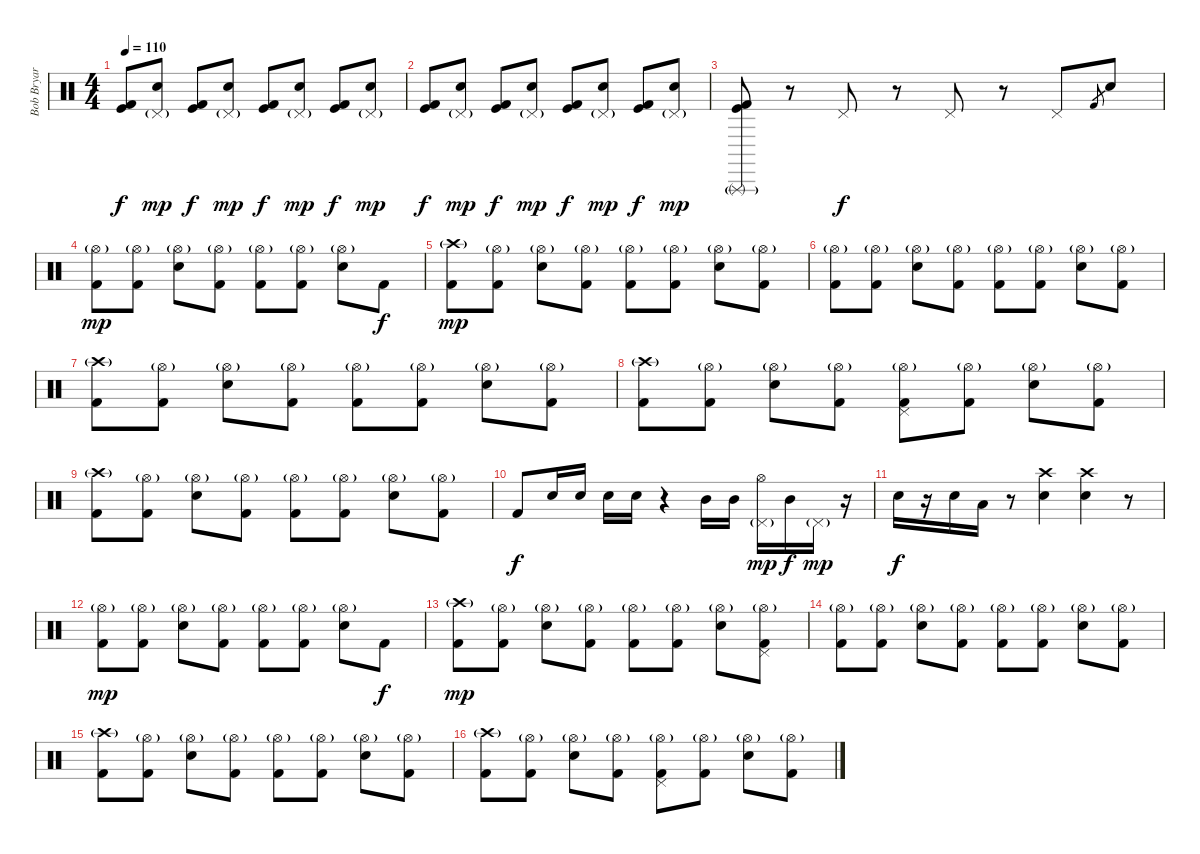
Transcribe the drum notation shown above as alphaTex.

\track ("Bob Bryar [Drums]" "Bob Bryar ") {instrument percussion}
\staff {score}
\articulation defaults
\ts (4 4)
\tempo 110
\clef neutral
\ks c
("Kick (hit)" "Kick (hit) 2").8{dy f volume 16 balance 8} ("Pedal Hi-Hat (hit)"{g} "Electric Snare (hit)").8{dy mp} ("Kick (hit)" "Kick (hit) 2").8{dy f} ("Pedal Hi-Hat (hit)"{g} "Electric Snare (hit)").8{dy mp} ("Kick (hit)" "Kick (hit) 2").8{dy f} ("Pedal Hi-Hat (hit)"{g} "Electric Snare (hit)").8{dy mp} ("Kick (hit)" "Kick (hit) 2").8{dy f} ("Pedal Hi-Hat (hit)"{g} "Electric Snare (hit)").8{dy mp} |
("Kick (hit)" "Kick (hit) 2").8{dy f volume 16 balance 8} ("Pedal Hi-Hat (hit)"{g} "Electric Snare (hit)").8{dy mp} ("Kick (hit)" "Kick (hit) 2").8{dy f} ("Pedal Hi-Hat (hit)"{g} "Electric Snare (hit)").8{dy mp} ("Kick (hit)" "Kick (hit) 2").8{dy f} ("Pedal Hi-Hat (hit)"{g} "Electric Snare (hit)").8{dy mp} ("Kick (hit)" "Kick (hit) 2").8{dy f} ("Pedal Hi-Hat (hit)"{g} "Electric Snare (hit)").8{dy mp} |
("Triangle (rnute)"{g} "Kick (hit)" "Kick (hit) 2").8 r.8 "Pedal Hi-Hat (hit)".8{dy f} r.8 "Pedal Hi-Hat (hit)".8 r.8 "Pedal Hi-Hat (hit)".8 "Kick (hit) 2".8{gr} "Electric Snare (hit)".8 |
("Hi-Hat (open)"{g} "Kick (hit) 2").8{dy mp} ("Hi-Hat (open)"{g} "Kick (hit) 2").8 ("Hi-Hat (open)"{g} "Electric Snare (hit)").8 ("Hi-Hat (open)"{g} "Kick (hit) 2").8 ("Hi-Hat (open)"{g} "Kick (hit) 2").8 ("Hi-Hat (open)"{g} "Kick (hit) 2").8 ("Hi-Hat (open)"{g} "Electric Snare (hit)").8 "Kick (hit) 2".8{dy f} |
("Crash high (hit)"{g} "Kick (hit) 2").8{dy mp} ("Hi-Hat (open)"{g} "Kick (hit) 2").8 ("Hi-Hat (open)"{g} "Electric Snare (hit)").8 ("Hi-Hat (open)"{g} "Kick (hit) 2").8 ("Hi-Hat (open)"{g} "Kick (hit) 2").8 ("Hi-Hat (open)"{g} "Kick (hit) 2").8 ("Hi-Hat (open)"{g} "Electric Snare (hit)").8 ("Hi-Hat (open)"{g} "Kick (hit) 2").8 |
("Hi-Hat (open)"{g} "Kick (hit) 2").8 ("Hi-Hat (open)"{g} "Kick (hit) 2").8 ("Hi-Hat (open)"{g} "Electric Snare (hit)").8 ("Hi-Hat (open)"{g} "Kick (hit) 2").8 ("Hi-Hat (open)"{g} "Kick (hit) 2").8 ("Hi-Hat (open)"{g} "Kick (hit) 2").8 ("Hi-Hat (open)"{g} "Electric Snare (hit)").8 ("Hi-Hat (open)"{g} "Kick (hit) 2").8 |
("Crash high (hit)"{g} "Kick (hit) 2").8 ("Hi-Hat (open)"{g} "Kick (hit) 2").8 ("Hi-Hat (open)"{g} "Electric Snare (hit)").8 ("Hi-Hat (open)"{g} "Kick (hit) 2").8 ("Hi-Hat (open)"{g} "Kick (hit) 2").8 ("Hi-Hat (open)"{g} "Kick (hit) 2").8 ("Hi-Hat (open)"{g} "Electric Snare (hit)").8 ("Hi-Hat (open)"{g} "Kick (hit) 2").8 |
("Crash high (hit)"{g} "Kick (hit) 2").8 ("Hi-Hat (open)"{g} "Kick (hit) 2").8 ("Hi-Hat (open)"{g} "Electric Snare (hit)").8 ("Hi-Hat (open)"{g} "Kick (hit) 2").8 ("Hi-Hat (open)"{g} "Pedal Hi-Hat (hit)" "Kick (hit) 2").8 ("Hi-Hat (open)"{g} "Kick (hit) 2").8 ("Hi-Hat (open)"{g} "Electric Snare (hit)").8 ("Hi-Hat (open)"{g} "Kick (hit) 2").8 |
("Crash high (hit)"{g} "Kick (hit) 2").8 ("Hi-Hat (open)"{g} "Kick (hit) 2").8 ("Hi-Hat (open)"{g} "Electric Snare (hit)").8 ("Hi-Hat (open)"{g} "Kick (hit) 2").8 ("Hi-Hat (open)"{g} "Kick (hit) 2").8 ("Hi-Hat (open)"{g} "Kick (hit) 2").8 ("Hi-Hat (open)"{g} "Electric Snare (hit)").8 ("Hi-Hat (open)"{g} "Kick (hit) 2").8 |
"Kick (hit) 2".8{dy f} "Electric Snare (hit)".16 "Electric Snare (hit)".16 "Electric Snare (hit)".16 "Electric Snare (hit)".16 r.4 "Mid Tom (hit)".16 "Mid Tom (hit)".16 ("Pedal Hi-Hat (hit)"{g} "Hi-Hat (open)").16{dy mp} "Mid Tom (hit)".16{dy f} "Pedal Hi-Hat (hit)"{g}.16{dy mp} r.16 |
"Electric Snare (hit)".16{dy f} r.16 "Electric Snare (hit)".16 "Low Tom (hit)".16 r.8 ("Crash high (hit)" "Electric Snare (hit)").4 ("Crash high (hit)" "Electric Snare (hit)").4 r.8 |
("Hi-Hat (open)"{g} "Kick (hit) 2").8{dy mp} ("Hi-Hat (open)"{g} "Kick (hit) 2").8 ("Hi-Hat (open)"{g} "Electric Snare (hit)").8 ("Hi-Hat (open)"{g} "Kick (hit) 2").8 ("Hi-Hat (open)"{g} "Kick (hit) 2").8 ("Hi-Hat (open)"{g} "Kick (hit) 2").8 ("Hi-Hat (open)"{g} "Electric Snare (hit)").8 "Kick (hit) 2".8{dy f} |
("Crash high (hit)"{g} "Kick (hit) 2").8{dy mp} ("Hi-Hat (open)"{g} "Kick (hit) 2").8 ("Hi-Hat (open)"{g} "Electric Snare (hit)").8 ("Hi-Hat (open)"{g} "Kick (hit) 2").8 ("Hi-Hat (open)"{g} "Kick (hit) 2").8 ("Hi-Hat (open)"{g} "Kick (hit) 2").8 ("Hi-Hat (open)"{g} "Electric Snare (hit)").8 ("Hi-Hat (open)"{g} "Pedal Hi-Hat (hit)" "Kick (hit) 2").8 |
("Hi-Hat (open)"{g} "Kick (hit) 2").8 ("Hi-Hat (open)"{g} "Kick (hit) 2").8 ("Hi-Hat (open)"{g} "Electric Snare (hit)").8 ("Hi-Hat (open)"{g} "Kick (hit) 2").8 ("Hi-Hat (open)"{g} "Kick (hit) 2").8 ("Hi-Hat (open)"{g} "Kick (hit) 2").8 ("Hi-Hat (open)"{g} "Electric Snare (hit)").8 ("Hi-Hat (open)"{g} "Kick (hit) 2").8 |
("Crash high (hit)"{g} "Kick (hit) 2").8 ("Hi-Hat (open)"{g} "Kick (hit) 2").8 ("Hi-Hat (open)"{g} "Electric Snare (hit)").8 ("Hi-Hat (open)"{g} "Kick (hit) 2").8 ("Hi-Hat (open)"{g} "Kick (hit) 2").8 ("Hi-Hat (open)"{g} "Kick (hit) 2").8 ("Hi-Hat (open)"{g} "Electric Snare (hit)").8 ("Hi-Hat (open)"{g} "Kick (hit) 2").8 |
("Crash high (hit)"{g} "Kick (hit) 2").8 ("Hi-Hat (open)"{g} "Kick (hit) 2").8 ("Hi-Hat (open)"{g} "Electric Snare (hit)").8 ("Hi-Hat (open)"{g} "Kick (hit) 2").8 ("Hi-Hat (open)"{g} "Pedal Hi-Hat (hit)" "Kick (hit) 2").8 ("Hi-Hat (open)"{g} "Kick (hit) 2").8 ("Hi-Hat (open)"{g} "Electric Snare (hit)").8 ("Hi-Hat (open)"{g} "Kick (hit) 2").8
